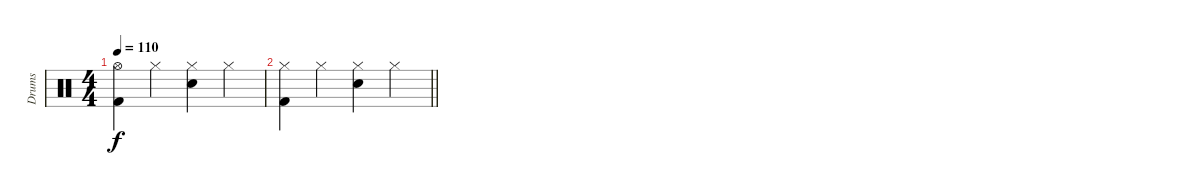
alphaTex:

\track ("Drums" "Drums") {instrument percussion}
\staff {score}
\articulation defaults
\ts (4 4)
\tempo 110
\clef neutral
\ks c
("Kick (hit) 2" "Hi-Hat (open)").4{dy f} "Hi-Hat (closed)".4 ("Electric Snare (hit)" "Hi-Hat (closed)").4 "Hi-Hat (closed)".4 |
\barLineRight lightlight
("Kick (hit) 2" "Hi-Hat (closed)").4 "Hi-Hat (closed)".4 ("Electric Snare (hit)" "Hi-Hat (closed)").4 "Hi-Hat (closed)".4
